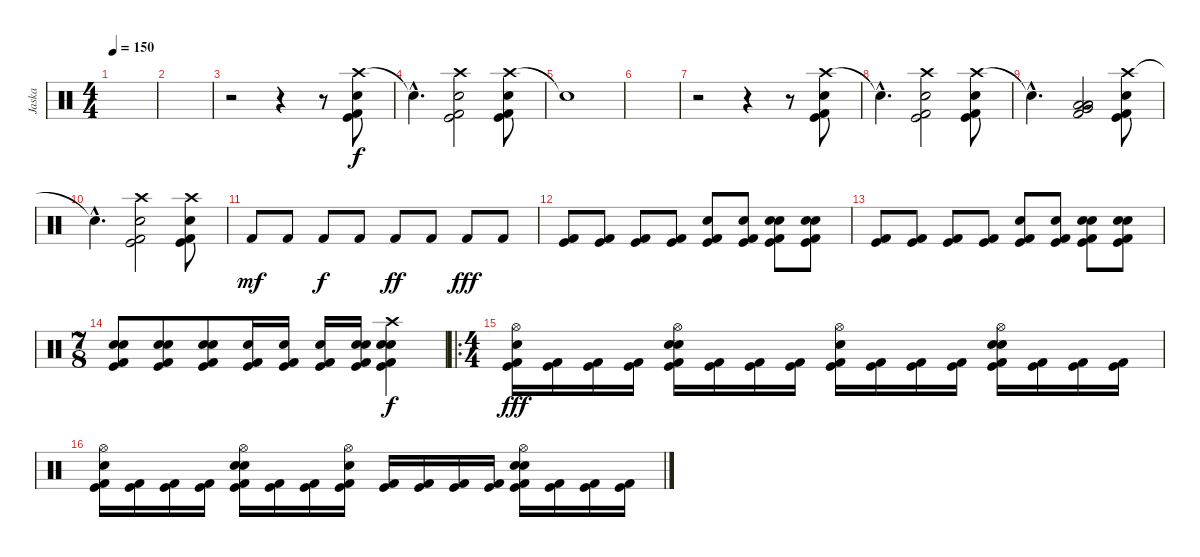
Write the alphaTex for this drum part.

\track ("Jaska" "Jaska") {instrument percussion}
\staff {score}
\articulation defaults
\ts (4 4)
\tempo 150
\clef neutral
\ks c
|
|
r.2 r.4 r.8 ("Crash high (hit)" "Snare (hit) 2" "Kick (hit)" "Kick (hit) 2").8 |
"Snare (hit)"{hac t}.4{d} ("Crash high (hit)" "Snare (hit) 2" "Kick (hit)" "Kick (hit) 2").2 ("Crash high (hit)" "Snare (hit) 2" "Kick (hit)" "Kick (hit) 2").8 |
"Snare (hit)"{t}.1 |
|
r.2 r.4 r.8 ("Crash high (hit)" "Snare (hit) 2" "Kick (hit)" "Kick (hit) 2").8 |
"Snare (hit)"{hac t}.4{d} ("Crash high (hit)" "Snare (hit) 2" "Kick (hit)" "Kick (hit) 2").2 ("Crash high (hit)" "Snare (hit) 2" "Kick (hit)" "Kick (hit) 2").8 |
"Snare (hit)"{hac t}.4{d} ("Very Low Tom (hit)" "Low Tom (hit)" "Low Floor Tom (hit)" "Low Floor Tom (hit)" "Kick (hit) 2").2 ("Crash high (hit)" "Snare (hit) 2" "Kick (hit)" "Kick (hit) 2").8 |
"Snare (hit)"{hac t}.4{d} ("Crash high (hit)" "Snare (hit) 2" "Kick (hit)" "Kick (hit) 2").2 ("Crash high (hit)" "Snare (hit) 2" "Kick (hit)" "Kick (hit) 2").8 |
"Kick (hit) 2".8{dy mf} "Kick (hit) 2".8 "Kick (hit) 2".8{dy f} "Kick (hit) 2".8 "Kick (hit) 2".8{dy ff} "Kick (hit) 2".8 "Kick (hit) 2".8{dy fff} "Kick (hit) 2".8 |
("Kick (hit)" "Kick (hit) 2").8 ("Kick (hit)" "Kick (hit) 2").8 ("Kick (hit)" "Kick (hit) 2").8 ("Kick (hit)" "Kick (hit) 2").8 ("Electric Snare (hit)" "Kick (hit)" "Kick (hit) 2").8 ("Electric Snare (hit)" "Kick (hit)" "Kick (hit) 2").8 ("Electric Snare (hit)" "Snare (hit) 2" "Kick (hit)" "Kick (hit) 2").8 ("Electric Snare (hit)" "Snare (hit) 2" "Kick (hit)" "Kick (hit) 2").8 |
("Kick (hit)" "Kick (hit) 2").8 ("Kick (hit)" "Kick (hit) 2").8 ("Kick (hit)" "Kick (hit) 2").8 ("Kick (hit)" "Kick (hit) 2").8 ("Electric Snare (hit)" "Kick (hit)" "Kick (hit) 2").8 ("Electric Snare (hit)" "Kick (hit)" "Kick (hit) 2").8 ("Electric Snare (hit)" "Snare (hit) 2" "Kick (hit)" "Kick (hit) 2").8 ("Electric Snare (hit)" "Snare (hit) 2" "Kick (hit)" "Kick (hit) 2").8 |
\ts (7 8)
("Electric Snare (hit)" "Snare (hit) 2" "Kick (hit)" "Kick (hit) 2").8 ("Electric Snare (hit)" "Snare (hit) 2" "Kick (hit)" "Kick (hit) 2").8 ("Electric Snare (hit)" "Snare (hit) 2" "Kick (hit)" "Kick (hit) 2").8 ("Snare (hit) 2" "Kick (hit)" "Kick (hit) 2").16 ("Snare (hit) 2" "Kick (hit)" "Kick (hit) 2").16 ("Snare (hit) 2" "Kick (hit)" "Kick (hit) 2").16 ("Electric Snare (hit)" "Snare (hit) 2" "Kick (hit)" "Kick (hit) 2").16 ("Crash high (hit)" "Electric Snare (hit)" "Snare (hit) 2" "Kick (hit)" "Kick (hit) 2").4{dy f} |
\ro
\ts (4 4)
("Hi-Hat (open)" "Snare (hit) 2" "Kick (hit)" "Kick (hit) 2").16{dy fff} ("Kick (hit)" "Kick (hit) 2").16 ("Kick (hit)" "Kick (hit) 2").16 ("Kick (hit)" "Kick (hit) 2").16 ("Hi-Hat (open)" "Electric Snare (hit)" "Snare (hit) 2" "Kick (hit)" "Kick (hit) 2").16 ("Kick (hit)" "Kick (hit) 2").16 ("Kick (hit)" "Kick (hit) 2").16 ("Kick (hit)" "Kick (hit) 2").16 ("Hi-Hat (open)" "Snare (hit) 2" "Kick (hit)" "Kick (hit) 2").16 ("Kick (hit)" "Kick (hit) 2").16 ("Kick (hit)" "Kick (hit) 2").16 ("Kick (hit)" "Kick (hit) 2").16 ("Hi-Hat (open)" "Electric Snare (hit)" "Snare (hit) 2" "Kick (hit)" "Kick (hit) 2").16 ("Kick (hit)" "Kick (hit) 2").16 ("Kick (hit)" "Kick (hit) 2").16 ("Kick (hit)" "Kick (hit) 2").16 |
("Hi-Hat (open)" "Snare (hit) 2" "Kick (hit)" "Kick (hit) 2").16 ("Kick (hit)" "Kick (hit) 2").16 ("Kick (hit)" "Kick (hit) 2").16 ("Kick (hit)" "Kick (hit) 2").16 ("Hi-Hat (open)" "Electric Snare (hit)" "Snare (hit) 2" "Kick (hit)" "Kick (hit) 2").16 ("Kick (hit)" "Kick (hit) 2").16 ("Kick (hit)" "Kick (hit) 2").16 ("Hi-Hat (open)" "Snare (hit) 2" "Kick (hit)" "Kick (hit) 2").16 ("Kick (hit)" "Kick (hit) 2").16 ("Kick (hit)" "Kick (hit) 2").16 ("Kick (hit)" "Kick (hit) 2").16 ("Kick (hit)" "Kick (hit) 2").16 ("Hi-Hat (open)" "Electric Snare (hit)" "Snare (hit) 2" "Kick (hit)" "Kick (hit) 2").16 ("Kick (hit)" "Kick (hit) 2").16 ("Kick (hit)" "Kick (hit) 2").16 ("Kick (hit)" "Kick (hit) 2").16
